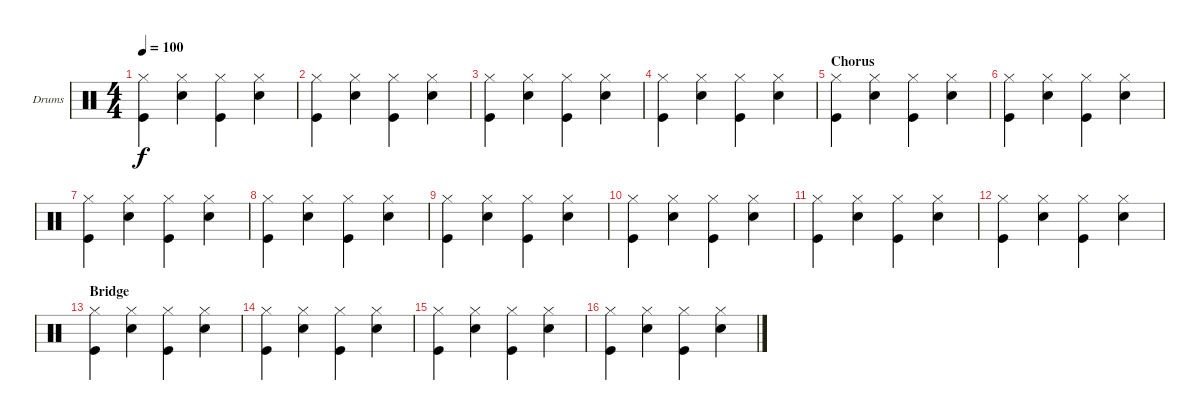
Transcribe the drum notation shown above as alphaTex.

\defaultSystemsLayout 4
\bracketExtendMode groupsimilarinstruments
\firstSystemTrackNameOrientation horizontal
\otherSystemsTrackNameOrientation horizontal
\track ("Drumkit" "Drums") {instrument percussion}
\staff {score}
\articulation defaults
\ts (4 4)
\tempo 100
\clef neutral
\ks c
("Kick (hit)" "Hi-Hat (closed)").4{dy f} ("Snare (hit) 2" "Hi-Hat (closed)").4 ("Hi-Hat (closed)" "Kick (hit)").4 ("Hi-Hat (closed)" "Snare (hit) 2").4 |
("Kick (hit)" "Hi-Hat (closed)").4 ("Snare (hit) 2" "Hi-Hat (closed)").4 ("Hi-Hat (closed)" "Kick (hit)").4 ("Hi-Hat (closed)" "Snare (hit) 2").4 |
("Kick (hit)" "Hi-Hat (closed)").4 ("Snare (hit) 2" "Hi-Hat (closed)").4 ("Hi-Hat (closed)" "Kick (hit)").4 ("Hi-Hat (closed)" "Snare (hit) 2").4 |
("Kick (hit)" "Hi-Hat (closed)").4 ("Snare (hit) 2" "Hi-Hat (closed)").4 ("Hi-Hat (closed)" "Kick (hit)").4 ("Hi-Hat (closed)" "Snare (hit) 2").4 |
\section ("" "Chorus")
("Kick (hit)" "Hi-Hat (closed)").4 ("Snare (hit) 2" "Hi-Hat (closed)").4 ("Hi-Hat (closed)" "Kick (hit)").4 ("Hi-Hat (closed)" "Snare (hit) 2").4 |
("Kick (hit)" "Hi-Hat (closed)").4 ("Snare (hit) 2" "Hi-Hat (closed)").4 ("Hi-Hat (closed)" "Kick (hit)").4 ("Hi-Hat (closed)" "Snare (hit) 2").4 |
("Kick (hit)" "Hi-Hat (closed)").4 ("Snare (hit) 2" "Hi-Hat (closed)").4 ("Hi-Hat (closed)" "Kick (hit)").4 ("Hi-Hat (closed)" "Snare (hit) 2").4 |
("Kick (hit)" "Hi-Hat (closed)").4 ("Snare (hit) 2" "Hi-Hat (closed)").4 ("Hi-Hat (closed)" "Kick (hit)").4 ("Hi-Hat (closed)" "Snare (hit) 2").4 |
("Kick (hit)" "Hi-Hat (closed)").4 ("Snare (hit) 2" "Hi-Hat (closed)").4 ("Hi-Hat (closed)" "Kick (hit)").4 ("Hi-Hat (closed)" "Snare (hit) 2").4 |
("Kick (hit)" "Hi-Hat (closed)").4 ("Snare (hit) 2" "Hi-Hat (closed)").4 ("Hi-Hat (closed)" "Kick (hit)").4 ("Hi-Hat (closed)" "Snare (hit) 2").4 |
("Kick (hit)" "Hi-Hat (closed)").4 ("Snare (hit) 2" "Hi-Hat (closed)").4 ("Hi-Hat (closed)" "Kick (hit)").4 ("Hi-Hat (closed)" "Snare (hit) 2").4 |
("Kick (hit)" "Hi-Hat (closed)").4 ("Snare (hit) 2" "Hi-Hat (closed)").4 ("Hi-Hat (closed)" "Kick (hit)").4 ("Hi-Hat (closed)" "Snare (hit) 2").4 |
\section ("" "Bridge")
("Kick (hit)" "Hi-Hat (closed)").4 ("Snare (hit) 2" "Hi-Hat (closed)").4 ("Hi-Hat (closed)" "Kick (hit)").4 ("Hi-Hat (closed)" "Snare (hit) 2").4 |
("Kick (hit)" "Hi-Hat (closed)").4 ("Snare (hit) 2" "Hi-Hat (closed)").4 ("Hi-Hat (closed)" "Kick (hit)").4 ("Hi-Hat (closed)" "Snare (hit) 2").4 |
("Kick (hit)" "Hi-Hat (closed)").4 ("Snare (hit) 2" "Hi-Hat (closed)").4 ("Hi-Hat (closed)" "Kick (hit)").4 ("Hi-Hat (closed)" "Snare (hit) 2").4 |
("Kick (hit)" "Hi-Hat (closed)").4 ("Snare (hit) 2" "Hi-Hat (closed)").4 ("Hi-Hat (closed)" "Kick (hit)").4 ("Hi-Hat (closed)" "Snare (hit) 2").4
